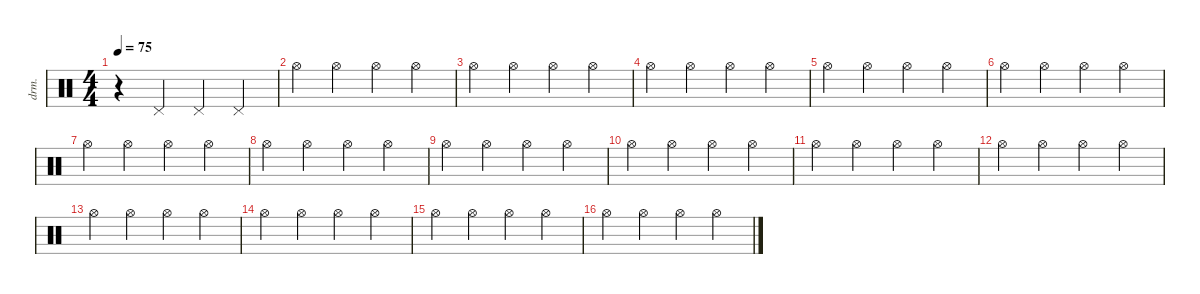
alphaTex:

\defaultSystemsLayout 4
\hideDynamics
\bracketExtendMode nobrackets
\otherSystemsTrackNameOrientation horizontal
\track ("Drums" "drm.") {instrument percussion}
\staff {score}
\articulation defaults
\ts (4 4)
\beaming (8 2 2 2 2)
\tempo 75
\clef neutral
\ks c
r.4{dy f beam Down} "Pedal Hi-Hat (hit)".4{beam Up} "Pedal Hi-Hat (hit)".4{beam Up} "Pedal Hi-Hat (hit)".4{beam Up} |
"Hi-Hat (open)".4{beam Down} "Hi-Hat (open)".4{beam Down} "Hi-Hat (open)".4{beam Down} "Hi-Hat (open)".4{beam Down} |
"Hi-Hat (open)".4{beam Down} "Hi-Hat (open)".4{beam Down} "Hi-Hat (open)".4{beam Down} "Hi-Hat (open)".4{beam Down} |
"Hi-Hat (open)".4{beam Down} "Hi-Hat (open)".4{beam Down} "Hi-Hat (open)".4{beam Down} "Hi-Hat (open)".4{beam Down} |
"Hi-Hat (open)".4{beam Down} "Hi-Hat (open)".4{beam Down} "Hi-Hat (open)".4{beam Down} "Hi-Hat (open)".4{beam Down} |
"Hi-Hat (open)".4{beam Down} "Hi-Hat (open)".4{beam Down} "Hi-Hat (open)".4{beam Down} "Hi-Hat (open)".4{beam Down} |
"Hi-Hat (open)".4{beam Down} "Hi-Hat (open)".4{beam Down} "Hi-Hat (open)".4{beam Down} "Hi-Hat (open)".4{beam Down} |
"Hi-Hat (open)".4{beam Down} "Hi-Hat (open)".4{beam Down} "Hi-Hat (open)".4{beam Down} "Hi-Hat (open)".4{beam Down} |
"Hi-Hat (open)".4{beam Down} "Hi-Hat (open)".4{beam Down} "Hi-Hat (open)".4{beam Down} "Hi-Hat (open)".4{beam Down} |
"Hi-Hat (open)".4{beam Down} "Hi-Hat (open)".4{beam Down} "Hi-Hat (open)".4{beam Down} "Hi-Hat (open)".4{beam Down} |
"Hi-Hat (open)".4{beam Down} "Hi-Hat (open)".4{beam Down} "Hi-Hat (open)".4{beam Down} "Hi-Hat (open)".4{beam Down} |
"Hi-Hat (open)".4{beam Down} "Hi-Hat (open)".4{beam Down} "Hi-Hat (open)".4{beam Down} "Hi-Hat (open)".4{beam Down} |
"Hi-Hat (open)".4{beam Down} "Hi-Hat (open)".4{beam Down} "Hi-Hat (open)".4{beam Down} "Hi-Hat (open)".4{beam Down} |
"Hi-Hat (open)".4{beam Down} "Hi-Hat (open)".4{beam Down} "Hi-Hat (open)".4{beam Down} "Hi-Hat (open)".4{beam Down} |
"Hi-Hat (open)".4{beam Down} "Hi-Hat (open)".4{beam Down} "Hi-Hat (open)".4{beam Down} "Hi-Hat (open)".4{beam Down} |
"Hi-Hat (open)".4{beam Down} "Hi-Hat (open)".4{beam Down} "Hi-Hat (open)".4{beam Down} "Hi-Hat (open)".4{beam Down}
